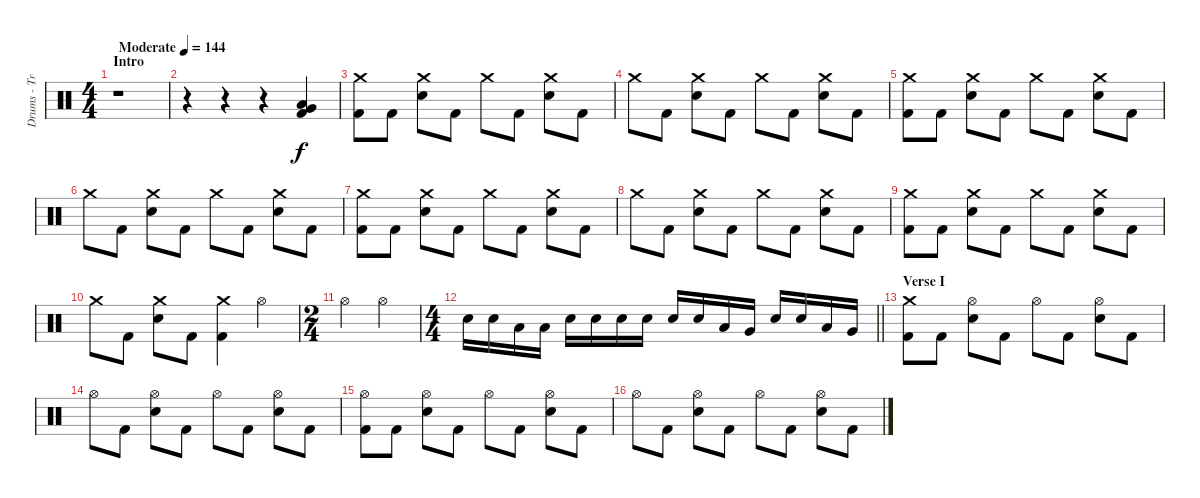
\track ("Drums - Tre Cool" "Drums - Tr") {instrument percussion}
\staff {score}
\articulation defaults
\ts (4 4)
\section ("" "Intro")
\tempo (144 "Moderate")
\clef neutral
\ks c
r.1{dy f} |
r.4 r.4 r.4 ("Low Floor Tom (hit)" "Very Low Tom (hit)" "Kick (hit) 2").4 |
("Crash medium (hit)" "Kick (hit) 2").8 "Kick (hit) 2".8 ("Crash medium (hit)" "Snare (hit) 2").8 "Kick (hit) 2".8 "Crash medium (hit)".8 "Kick (hit) 2".8 ("Crash medium (hit)" "Snare (hit) 2").8 "Kick (hit) 2".8 |
"Crash medium (hit)".8 "Kick (hit) 2".8 ("Crash medium (hit)" "Snare (hit) 2").8 "Kick (hit) 2".8 "Crash medium (hit)".8 "Kick (hit) 2".8 ("Crash medium (hit)" "Snare (hit) 2").8 "Kick (hit) 2".8 |
("Crash medium (hit)" "Kick (hit) 2").8 "Kick (hit) 2".8 ("Crash medium (hit)" "Snare (hit) 2").8 "Kick (hit) 2".8 "Crash medium (hit)".8 "Kick (hit) 2".8 ("Crash medium (hit)" "Snare (hit) 2").8 "Kick (hit) 2".8 |
"Crash medium (hit)".8 "Kick (hit) 2".8 ("Crash medium (hit)" "Snare (hit) 2").8 "Kick (hit) 2".8 "Crash medium (hit)".8 "Kick (hit) 2".8 ("Crash medium (hit)" "Snare (hit) 2").8 "Kick (hit) 2".8 |
("Crash medium (hit)" "Kick (hit) 2").8 "Kick (hit) 2".8 ("Crash medium (hit)" "Snare (hit) 2").8 "Kick (hit) 2".8 "Crash medium (hit)".8 "Kick (hit) 2".8 ("Crash medium (hit)" "Snare (hit) 2").8 "Kick (hit) 2".8 |
"Crash medium (hit)".8 "Kick (hit) 2".8 ("Crash medium (hit)" "Snare (hit) 2").8 "Kick (hit) 2".8 "Crash medium (hit)".8 "Kick (hit) 2".8 ("Crash medium (hit)" "Snare (hit) 2").8 "Kick (hit) 2".8 |
("Crash medium (hit)" "Kick (hit) 2").8 "Kick (hit) 2".8 ("Crash medium (hit)" "Snare (hit) 2").8 "Kick (hit) 2".8 "Crash medium (hit)".8 "Kick (hit) 2".8 ("Crash medium (hit)" "Snare (hit) 2").8 "Kick (hit) 2".8 |
"Crash medium (hit)".8 "Kick (hit) 2".8 ("Crash medium (hit)" "Snare (hit) 2").8 "Kick (hit) 2".8 ("Crash medium (hit)" "Kick (hit) 2").4 "Hi-Hat (open)".4 |
\ts (2 4)
"Hi-Hat (open)".4 "Hi-Hat (open)".4 |
\ts (4 4)
\barLineRight lightlight "Snare (hit) 2".16 "Snare (hit) 2".16 "Low Floor Tom (hit)".16 "Low Floor Tom (hit)".16 "Snare (hit) 2".16 "Snare (hit) 2".16 "Snare (hit) 2".16 "Snare (hit) 2".16 "Snare (hit) 2".16 "Snare (hit) 2".16 "Low Floor Tom (hit)".16 "Very Low Tom (hit)".16 "Snare (hit) 2".16 "Snare (hit) 2".16 "Low Floor Tom (hit)".16 "Very Low Tom (hit)".16
|
\section ("" "Verse I")
("Crash medium (hit)" "Kick (hit) 2").8 "Kick (hit) 2".8 ("Hi-Hat (open)" "Snare (hit) 2").8 "Kick (hit) 2".8 "Hi-Hat (open)".8 "Kick (hit) 2".8 ("Hi-Hat (open)" "Snare (hit) 2").8 "Kick (hit) 2".8 |
"Hi-Hat (open)".8 "Kick (hit) 2".8 ("Hi-Hat (open)" "Snare (hit) 2").8 "Kick (hit) 2".8 "Hi-Hat (open)".8 "Kick (hit) 2".8 ("Hi-Hat (open)" "Snare (hit) 2").8 "Kick (hit) 2".8 |
("Hi-Hat (open)" "Kick (hit) 2").8 "Kick (hit) 2".8 ("Hi-Hat (open)" "Snare (hit) 2").8 "Kick (hit) 2".8 "Hi-Hat (open)".8 "Kick (hit) 2".8 ("Hi-Hat (open)" "Snare (hit) 2").8 "Kick (hit) 2".8 |
"Hi-Hat (open)".8 "Kick (hit) 2".8 ("Hi-Hat (open)" "Snare (hit) 2").8 "Kick (hit) 2".8 "Hi-Hat (open)".8 "Kick (hit) 2".8 ("Hi-Hat (open)" "Snare (hit) 2").8 "Kick (hit) 2".8
